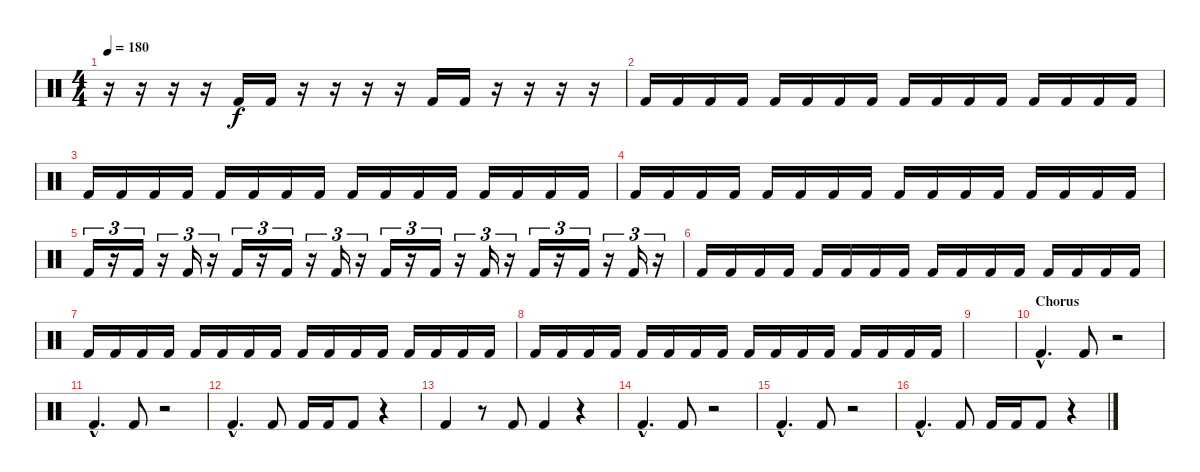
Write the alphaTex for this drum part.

\track "" {instrument percussion}
\staff {score}
\articulation defaults
\ts (4 4)
\tempo 180
\clef neutral
\ks c
r.16{dy f} r.16 r.16 r.16 "Kick (hit) 2".16 "Kick (hit) 2".16 r.16 r.16 r.16 r.16 "Kick (hit) 2".16 "Kick (hit) 2".16 r.16 r.16 r.16 r.16 |
"Kick (hit) 2".16 "Kick (hit) 2".16 "Kick (hit) 2".16 "Kick (hit) 2".16 "Kick (hit) 2".16 "Kick (hit) 2".16 "Kick (hit) 2".16 "Kick (hit) 2".16 "Kick (hit) 2".16 "Kick (hit) 2".16 "Kick (hit) 2".16 "Kick (hit) 2".16 "Kick (hit) 2".16 "Kick (hit) 2".16 "Kick (hit) 2".16 "Kick (hit) 2".16 |
"Kick (hit) 2".16 "Kick (hit) 2".16 "Kick (hit) 2".16 "Kick (hit) 2".16 "Kick (hit) 2".16 "Kick (hit) 2".16 "Kick (hit) 2".16 "Kick (hit) 2".16 "Kick (hit) 2".16 "Kick (hit) 2".16 "Kick (hit) 2".16 "Kick (hit) 2".16 "Kick (hit) 2".16 "Kick (hit) 2".16 "Kick (hit) 2".16 "Kick (hit) 2".16 |
"Kick (hit) 2".16 "Kick (hit) 2".16 "Kick (hit) 2".16 "Kick (hit) 2".16 "Kick (hit) 2".16 "Kick (hit) 2".16 "Kick (hit) 2".16 "Kick (hit) 2".16 "Kick (hit) 2".16 "Kick (hit) 2".16 "Kick (hit) 2".16 "Kick (hit) 2".16 "Kick (hit) 2".16 "Kick (hit) 2".16 "Kick (hit) 2".16 "Kick (hit) 2".16 |
"Kick (hit) 2".16{tu (3 2)} r.16{tu (3 2)} "Kick (hit) 2".16{tu (3 2)} r.16{tu (3 2)} "Kick (hit) 2".16{tu (3 2)} r.16{tu (3 2)} "Kick (hit) 2".16{tu (3 2)} r.16{tu (3 2)} "Kick (hit) 2".16{tu (3 2)} r.16{tu (3 2)} "Kick (hit) 2".16{tu (3 2)} r.16{tu (3 2)} "Kick (hit) 2".16{tu (3 2)} r.16{tu (3 2)} "Kick (hit) 2".16{tu (3 2)} r.16{tu (3 2)} "Kick (hit) 2".16{tu (3 2)} r.16{tu (3 2)} "Kick (hit) 2".16{tu (3 2)} r.16{tu (3 2)} "Kick (hit) 2".16{tu (3 2)} r.16{tu (3 2)} "Kick (hit) 2".16{tu (3 2)} r.16{tu (3 2)} |
"Kick (hit) 2".16 "Kick (hit) 2".16 "Kick (hit) 2".16 "Kick (hit) 2".16 "Kick (hit) 2".16 "Kick (hit) 2".16 "Kick (hit) 2".16 "Kick (hit) 2".16 "Kick (hit) 2".16 "Kick (hit) 2".16 "Kick (hit) 2".16 "Kick (hit) 2".16 "Kick (hit) 2".16 "Kick (hit) 2".16 "Kick (hit) 2".16 "Kick (hit) 2".16 |
"Kick (hit) 2".16 "Kick (hit) 2".16 "Kick (hit) 2".16 "Kick (hit) 2".16 "Kick (hit) 2".16 "Kick (hit) 2".16 "Kick (hit) 2".16 "Kick (hit) 2".16 "Kick (hit) 2".16 "Kick (hit) 2".16 "Kick (hit) 2".16 "Kick (hit) 2".16 "Kick (hit) 2".16 "Kick (hit) 2".16 "Kick (hit) 2".16 "Kick (hit) 2".16 |
"Kick (hit) 2".16 "Kick (hit) 2".16 "Kick (hit) 2".16 "Kick (hit) 2".16 "Kick (hit) 2".16 "Kick (hit) 2".16 "Kick (hit) 2".16 "Kick (hit) 2".16 "Kick (hit) 2".16 "Kick (hit) 2".16 "Kick (hit) 2".16 "Kick (hit) 2".16 "Kick (hit) 2".16 "Kick (hit) 2".16 "Kick (hit) 2".16 "Kick (hit) 2".16 |
|
\section ("" "Chorus")
"Kick (hit) 2"{hac}.4{d} "Kick (hit) 2".8 r.2 |
"Kick (hit) 2"{hac}.4{d} "Kick (hit) 2".8 r.2 |
"Kick (hit) 2"{hac}.4{d} "Kick (hit) 2".8 "Kick (hit) 2".16 "Kick (hit) 2".16 "Kick (hit) 2".8 r.4 |
"Kick (hit) 2".4 r.8 "Kick (hit) 2".8 "Kick (hit) 2".4 r.4 |
"Kick (hit) 2"{hac}.4{d} "Kick (hit) 2".8 r.2 |
"Kick (hit) 2"{hac}.4{d} "Kick (hit) 2".8 r.2 |
"Kick (hit) 2"{hac}.4{d} "Kick (hit) 2".8 "Kick (hit) 2".16 "Kick (hit) 2".16 "Kick (hit) 2".8 r.4
